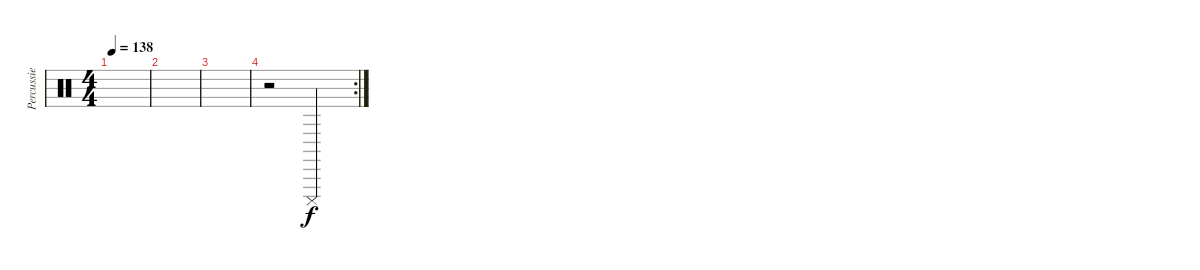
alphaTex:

\track ("Percussie" "Percussie") {instrument percussion}
\staff {score}
\articulation defaults
\ts (4 4)
\tempo 138
\clef neutral
\ks c
|
|
|
\rc 2
r.2 "Cuica (mute)".2
